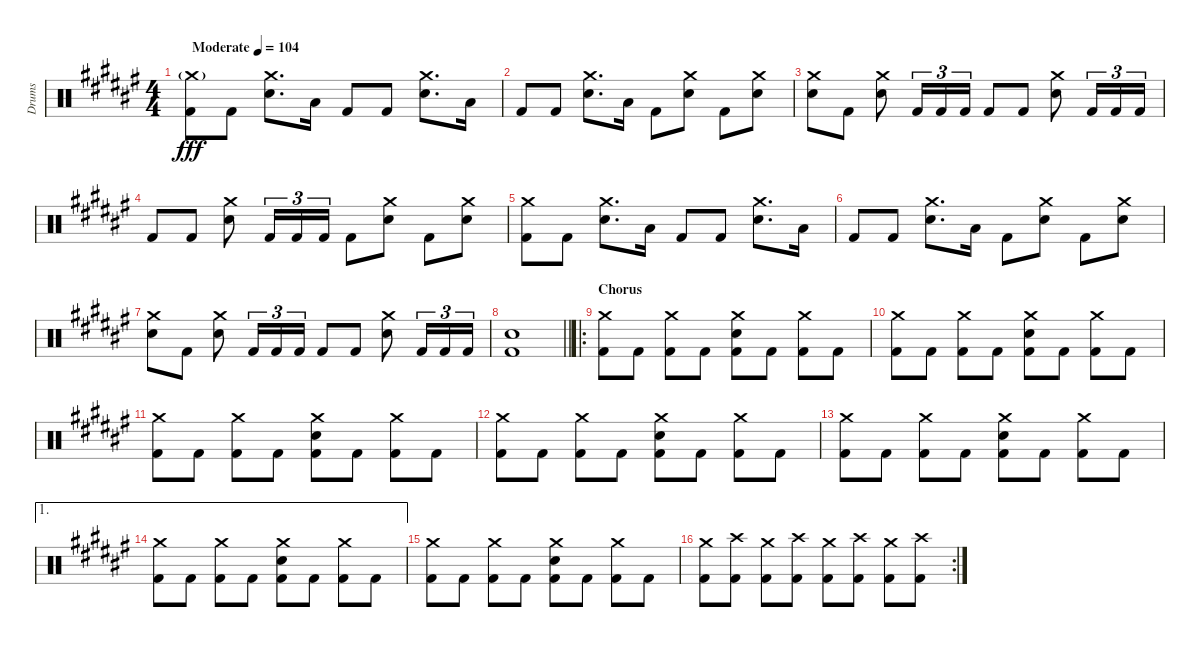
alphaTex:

\track ("Drums" "Drums") {instrument percussion}
\staff {score}
\articulation defaults
\ts (4 4)
\tempo (104 "Moderate")
\clef neutral
\ks f#
("Crash medium (hit)"{g} "Kick (hit) 2").8{dy fff} "Kick (hit) 2".8 ("Crash medium (hit)" "Snare (hit) 2").8{d} "Low Floor Tom (hit)".16 "Kick (hit) 2".8 "Kick (hit) 2".8 ("Crash medium (hit)" "Snare (hit) 2").8{d} "Low Floor Tom (hit)".16 |
"Kick (hit) 2".8 "Kick (hit) 2".8 ("Crash medium (hit)" "Snare (hit) 2").8{d} "Low Floor Tom (hit)".16 "Kick (hit) 2".8 ("Crash medium (hit)" "Snare (hit) 2").8 "Kick (hit) 2".8 ("Crash medium (hit)" "Snare (hit) 2").8 |
("Crash medium (hit)" "Snare (hit) 2").8 "Kick (hit) 2".8 ("Crash medium (hit)" "Snare (hit) 2").8 "Kick (hit) 2".16{tu (3 2)} "Kick (hit) 2".16{tu (3 2)} "Kick (hit) 2".16{tu (3 2)} "Kick (hit) 2".8 "Kick (hit) 2".8 ("Crash medium (hit)" "Snare (hit) 2").8 "Kick (hit) 2".16{tu (3 2)} "Kick (hit) 2".16{tu (3 2)} "Kick (hit) 2".16{tu (3 2)} |
"Kick (hit) 2".8 "Kick (hit) 2".8 ("Crash medium (hit)" "Snare (hit) 2").8 "Kick (hit) 2".16{tu (3 2)} "Kick (hit) 2".16{tu (3 2)} "Kick (hit) 2".16{tu (3 2)} "Kick (hit) 2".8 ("Crash medium (hit)" "Snare (hit) 2").8 "Kick (hit) 2".8 ("Crash medium (hit)" "Snare (hit) 2").8 |
("Crash medium (hit)" "Kick (hit) 2").8 "Kick (hit) 2".8 ("Crash medium (hit)" "Snare (hit) 2").8{d} "Low Floor Tom (hit)".16 "Kick (hit) 2".8 "Kick (hit) 2".8 ("Crash medium (hit)" "Snare (hit) 2").8{d} "Low Floor Tom (hit)".16 |
"Kick (hit) 2".8 "Kick (hit) 2".8 ("Crash medium (hit)" "Snare (hit) 2").8{d} "Low Floor Tom (hit)".16 "Kick (hit) 2".8 ("Crash medium (hit)" "Snare (hit) 2").8 "Kick (hit) 2".8 ("Crash medium (hit)" "Snare (hit) 2").8 |
("Crash medium (hit)" "Snare (hit) 2").8 "Kick (hit) 2".8 ("Crash medium (hit)" "Snare (hit) 2").8 "Kick (hit) 2".16{tu (3 2)} "Kick (hit) 2".16{tu (3 2)} "Kick (hit) 2".16{tu (3 2)} "Kick (hit) 2".8 "Kick (hit) 2".8 ("Crash medium (hit)" "Snare (hit) 2").8 "Kick (hit) 2".16{tu (3 2)} "Kick (hit) 2".16{tu (3 2)} "Kick (hit) 2".16{tu (3 2)} |
\barLineRight lightlight
("Snare (hit) 2" "Kick (hit) 2").1 |
\ro
\section ("" "Chorus")
("Crash medium (hit)" "Kick (hit) 2").8 "Kick (hit) 2".8 ("Crash medium (hit)" "Kick (hit) 2").8 "Kick (hit) 2".8 ("Crash medium (hit)" "Snare (hit) 2" "Kick (hit) 2").8 "Kick (hit) 2".8 ("Crash medium (hit)" "Kick (hit) 2").8 "Kick (hit) 2".8 |
("Crash medium (hit)" "Kick (hit) 2").8 "Kick (hit) 2".8 ("Crash medium (hit)" "Kick (hit) 2").8 "Kick (hit) 2".8 ("Crash medium (hit)" "Snare (hit) 2" "Kick (hit) 2").8 "Kick (hit) 2".8 ("Crash medium (hit)" "Kick (hit) 2").8 "Kick (hit) 2".8 |
("Crash medium (hit)" "Kick (hit) 2").8 "Kick (hit) 2".8 ("Crash medium (hit)" "Kick (hit) 2").8 "Kick (hit) 2".8 ("Crash medium (hit)" "Snare (hit) 2" "Kick (hit) 2").8 "Kick (hit) 2".8 ("Crash medium (hit)" "Kick (hit) 2").8 "Kick (hit) 2".8 |
("Crash medium (hit)" "Kick (hit) 2").8 "Kick (hit) 2".8 ("Crash medium (hit)" "Kick (hit) 2").8 "Kick (hit) 2".8 ("Crash medium (hit)" "Snare (hit) 2" "Kick (hit) 2").8 "Kick (hit) 2".8 ("Crash medium (hit)" "Kick (hit) 2").8 "Kick (hit) 2".8 |
("Crash medium (hit)" "Kick (hit) 2").8 "Kick (hit) 2".8 ("Crash medium (hit)" "Kick (hit) 2").8 "Kick (hit) 2".8 ("Crash medium (hit)" "Snare (hit) 2" "Kick (hit) 2").8 "Kick (hit) 2".8 ("Crash medium (hit)" "Kick (hit) 2").8 "Kick (hit) 2".8 |
\ae 1
("Crash medium (hit)" "Kick (hit) 2").8 "Kick (hit) 2".8 ("Crash medium (hit)" "Kick (hit) 2").8 "Kick (hit) 2".8 ("Crash medium (hit)" "Snare (hit) 2" "Kick (hit) 2").8 "Kick (hit) 2".8 ("Crash medium (hit)" "Kick (hit) 2").8 "Kick (hit) 2".8 |
("Crash medium (hit)" "Kick (hit) 2").8 "Kick (hit) 2".8 ("Crash medium (hit)" "Kick (hit) 2").8 "Kick (hit) 2".8 ("Crash medium (hit)" "Snare (hit) 2" "Kick (hit) 2").8 "Kick (hit) 2".8 ("Crash medium (hit)" "Kick (hit) 2").8 "Kick (hit) 2".8 |
\rc 2
("Crash medium (hit)" "Kick (hit) 2").8 ("Crash high (hit)" "Kick (hit) 2").8 ("Crash medium (hit)" "Kick (hit) 2").8 ("Crash high (hit)" "Kick (hit) 2").8 ("Crash medium (hit)" "Kick (hit) 2").8 ("Crash high (hit)" "Kick (hit) 2").8 ("Crash medium (hit)" "Kick (hit) 2").8 ("Crash high (hit)" "Kick (hit) 2").8
